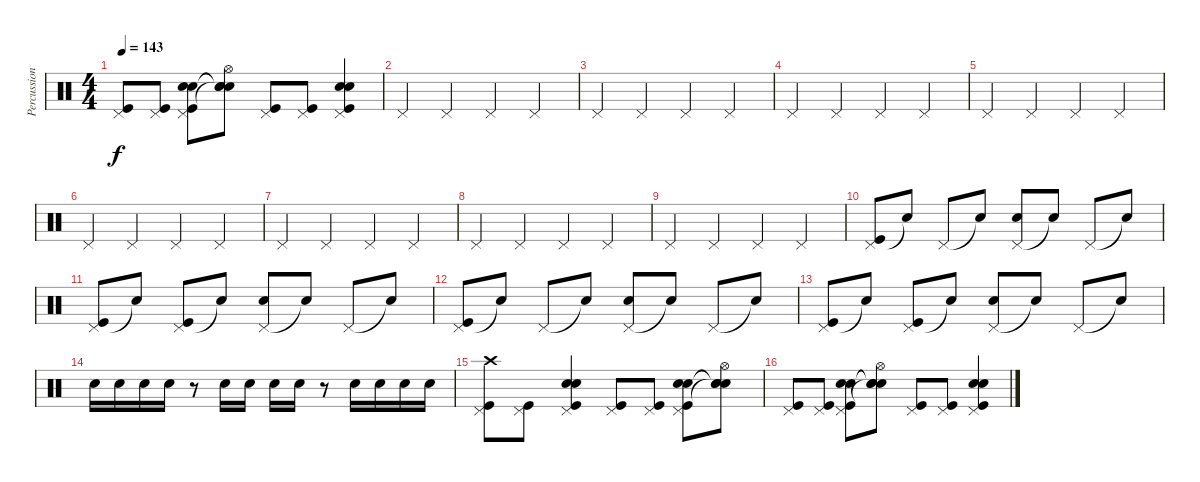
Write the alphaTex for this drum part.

\track ("Percussions" "Percussion") {instrument percussion}
\staff {score}
\articulation defaults
\ts (4 4)
\tempo 143
\clef neutral
\ks c
("Pedal Hi-Hat (hit)" "Kick (hit)").8{dy f} ("Pedal Hi-Hat (hit)" "Kick (hit)").8 ("Pedal Hi-Hat (hit)" "Snare (hit) 2" "Snare (hit) 2" "Kick (hit)").8 ("Hi-Hat (open)" "Snare (hit)"{t} "Snare (hit)"{t} "Snare (hit)"{t}).8 ("Pedal Hi-Hat (hit)" "Kick (hit)").8 ("Pedal Hi-Hat (hit)" "Kick (hit)").8 ("Pedal Hi-Hat (hit)" "Snare (hit) 2" "Snare (hit) 2" "Kick (hit)").4 |
"Pedal Hi-Hat (hit)".4 "Pedal Hi-Hat (hit)".4 "Pedal Hi-Hat (hit)".4 "Pedal Hi-Hat (hit)".4 |
"Pedal Hi-Hat (hit)".4 "Pedal Hi-Hat (hit)".4 "Pedal Hi-Hat (hit)".4 "Pedal Hi-Hat (hit)".4 |
"Pedal Hi-Hat (hit)".4 "Pedal Hi-Hat (hit)".4 "Pedal Hi-Hat (hit)".4 "Pedal Hi-Hat (hit)".4 |
"Pedal Hi-Hat (hit)".4 "Pedal Hi-Hat (hit)".4 "Pedal Hi-Hat (hit)".4 "Pedal Hi-Hat (hit)".4 |
"Pedal Hi-Hat (hit)".4 "Pedal Hi-Hat (hit)".4 "Pedal Hi-Hat (hit)".4 "Pedal Hi-Hat (hit)".4 |
"Pedal Hi-Hat (hit)".4 "Pedal Hi-Hat (hit)".4 "Pedal Hi-Hat (hit)".4 "Pedal Hi-Hat (hit)".4 |
"Pedal Hi-Hat (hit)".4 "Pedal Hi-Hat (hit)".4 "Pedal Hi-Hat (hit)".4 "Pedal Hi-Hat (hit)".4 |
"Pedal Hi-Hat (hit)".4 "Pedal Hi-Hat (hit)".4 "Pedal Hi-Hat (hit)".4 "Pedal Hi-Hat (hit)".4 |
("Pedal Hi-Hat (hit)" "Kick (hit)").8 "Snare (hit)"{t}.8 "Pedal Hi-Hat (hit)".8 "Snare (hit)"{t}.8 ("Pedal Hi-Hat (hit)" "Snare (hit) 2").8 "Snare (hit)"{t}.8 "Pedal Hi-Hat (hit)".8 "Snare (hit)"{t}.8 |
("Pedal Hi-Hat (hit)" "Kick (hit)").8 "Snare (hit)"{t}.8 ("Pedal Hi-Hat (hit)" "Kick (hit)").8 "Snare (hit)"{t}.8 ("Pedal Hi-Hat (hit)" "Snare (hit) 2").8 "Snare (hit)"{t}.8 "Pedal Hi-Hat (hit)".8 "Snare (hit)"{t}.8 |
("Pedal Hi-Hat (hit)" "Kick (hit)").8 "Snare (hit)"{t}.8 "Pedal Hi-Hat (hit)".8 "Snare (hit)"{t}.8 ("Pedal Hi-Hat (hit)" "Snare (hit) 2").8 "Snare (hit)"{t}.8 "Pedal Hi-Hat (hit)".8 "Snare (hit)"{t}.8 |
("Pedal Hi-Hat (hit)" "Kick (hit)").8 "Snare (hit)"{t}.8 ("Pedal Hi-Hat (hit)" "Kick (hit)").8 "Snare (hit)"{t}.8 ("Pedal Hi-Hat (hit)" "Snare (hit) 2").8 "Snare (hit)"{t}.8 "Pedal Hi-Hat (hit)".8 "Snare (hit)"{t}.8 |
"Snare (hit) 2".16 "Snare (hit) 2".16 "Snare (hit) 2".16 "Snare (hit) 2".16 r.8 "Snare (hit) 2".16 "Snare (hit) 2".16 "Snare (hit) 2".16 "Snare (hit) 2".16 r.8 "Snare (hit) 2".16 "Snare (hit) 2".16 "Snare (hit) 2".16 "Snare (hit) 2".16 |
("Pedal Hi-Hat (hit)" "Crash high (hit)" "Kick (hit)").8 ("Pedal Hi-Hat (hit)" "Kick (hit)").8 ("Pedal Hi-Hat (hit)" "Snare (hit) 2" "Snare (hit) 2" "Kick (hit)").4 ("Pedal Hi-Hat (hit)" "Kick (hit)").8 ("Pedal Hi-Hat (hit)" "Kick (hit)").8 ("Pedal Hi-Hat (hit)" "Snare (hit) 2" "Snare (hit) 2" "Kick (hit)").8 ("Hi-Hat (open)" "Snare (hit)"{t} "Snare (hit)"{t} "Snare (hit)"{t}).8 |
("Pedal Hi-Hat (hit)" "Kick (hit)").8 ("Pedal Hi-Hat (hit)" "Kick (hit)").8 ("Pedal Hi-Hat (hit)" "Snare (hit) 2" "Snare (hit) 2" "Kick (hit)").8 ("Hi-Hat (open)" "Snare (hit)"{t} "Snare (hit)"{t} "Snare (hit)"{t}).8 ("Pedal Hi-Hat (hit)" "Kick (hit)").8 ("Pedal Hi-Hat (hit)" "Kick (hit)").8 ("Pedal Hi-Hat (hit)" "Snare (hit) 2" "Snare (hit) 2" "Kick (hit)").4
